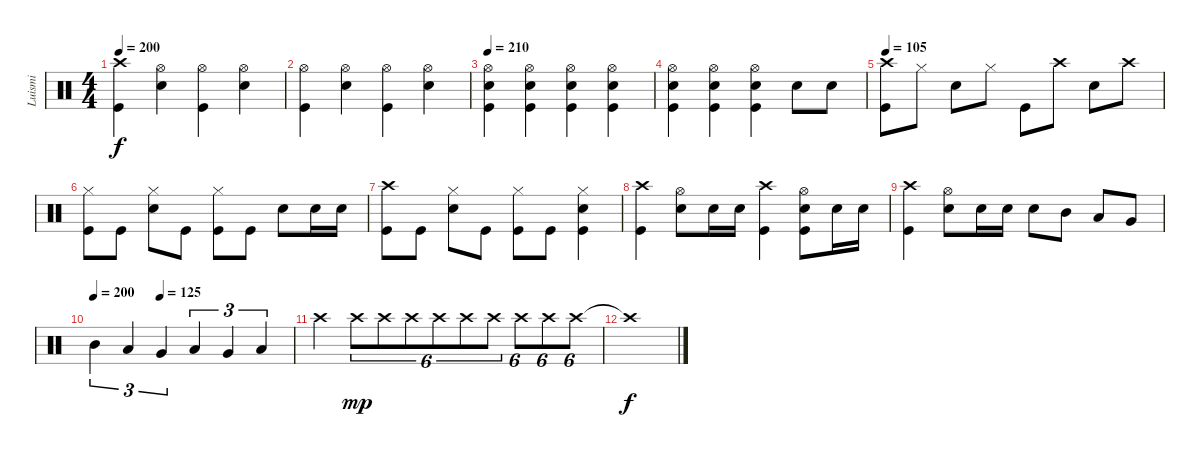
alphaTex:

\track ("Luismi" "Luismi") {instrument percussion}
\staff {score}
\articulation defaults
\ts (4 4)
\tempo 200
\clef neutral
\ks c
("Kick (hit)" "Crash high (hit)").4{dy f} ("Snare (hit) 2" "Hi-Hat (open)").4 ("Kick (hit)" "Hi-Hat (open)").4 ("Snare (hit) 2" "Hi-Hat (open)").4 |
("Kick (hit)" "Hi-Hat (open)").4 ("Hi-Hat (open)" "Snare (hit) 2").4 ("Kick (hit)" "Hi-Hat (open)").4 ("Snare (hit) 2" "Hi-Hat (open)").4 |
\tempo 210
("Kick (hit)" "Snare (hit) 2" "Hi-Hat (open)").4 ("Hi-Hat (open)" "Snare (hit) 2" "Kick (hit)").4 ("Kick (hit)" "Snare (hit) 2" "Hi-Hat (open)").4 ("Snare (hit) 2" "Kick (hit)" "Hi-Hat (open)").4 |
("Kick (hit)" "Snare (hit) 2" "Hi-Hat (open)").4 ("Hi-Hat (open)" "Snare (hit) 2" "Kick (hit)").4 ("Kick (hit)" "Hi-Hat (open)" "Snare (hit) 2").4 "Snare (hit) 2".8 "Snare (hit) 2".8 |
\tempo 105
("Kick (hit)" "Crash high (hit)").8 "Hi-Hat (closed)".8 "Snare (hit) 2".8 "Hi-Hat (closed)".8 "Kick (hit)".8 "Crash high (hit)".8 "Snare (hit) 2".8 "Crash high (hit)".8 |
("Kick (hit)" "Hi-Hat (closed)").8 "Kick (hit)".8 ("Snare (hit) 2" "Hi-Hat (closed)").8 "Kick (hit)".8 ("Kick (hit)" "Hi-Hat (closed)").8 "Kick (hit)".8 "Snare (hit) 2".8 "Snare (hit) 2".16 "Snare (hit) 2".16 |
("Kick (hit)" "Crash high (hit)").8 "Kick (hit)".8 ("Snare (hit) 2" "Hi-Hat (closed)").8 "Kick (hit)".8 ("Kick (hit)" "Hi-Hat (closed)").8 "Kick (hit)".8 ("Snare (hit) 2" "Hi-Hat (closed)" "Kick (hit)").4 |
("Kick (hit)" "Crash high (hit)").4 ("Hi-Hat (open)" "Snare (hit) 2").8 "Snare (hit) 2".16 "Snare (hit) 2".16 ("Kick (hit)" "Crash high (hit)").4 ("Kick (hit)" "Hi-Hat (open)" "Snare (hit) 2").8 "Snare (hit) 2".16 "Snare (hit) 2".16 |
("Kick (hit)" "Crash high (hit)").4 ("Hi-Hat (open)" "Snare (hit) 2").8 "Snare (hit) 2".16 "Snare (hit) 2".16 "Snare (hit) 2".8 "Mid Tom (hit)".8 "Low Tom (hit)".8 "Very Low Tom (hit)".8 |
\tempo 200
\tempo (125 0.3333333333333333)
"Mid Tom (hit)".4{tu (3 2)} "Low Tom (hit)".4{tu (3 2)} "Very Low Tom (hit)".4{tu (3 2)} "Low Tom (hit)".4{tu (3 2)} "Very Low Tom (hit)".4{tu (3 2)} "Low Floor Tom (hit)".4{tu (3 2)} |
"Crash high (hit)".4 "Crash high (hit)".8{tu (6 4) dy mp} "Crash high (hit)".8{tu (6 4)} "Crash high (hit)".8{tu (6 4)} "Crash high (hit)".8{tu (6 4)} "Crash high (hit)".8{tu (6 4)} "Crash high (hit)".8{tu (6 4)} "Crash high (hit)".8{tu (6 4)} "Crash high (hit)".8{tu (6 4)} "Crash high (hit)".8{tu (6 4)} |
"Crash high (hit)"{t}.1{dy f}
